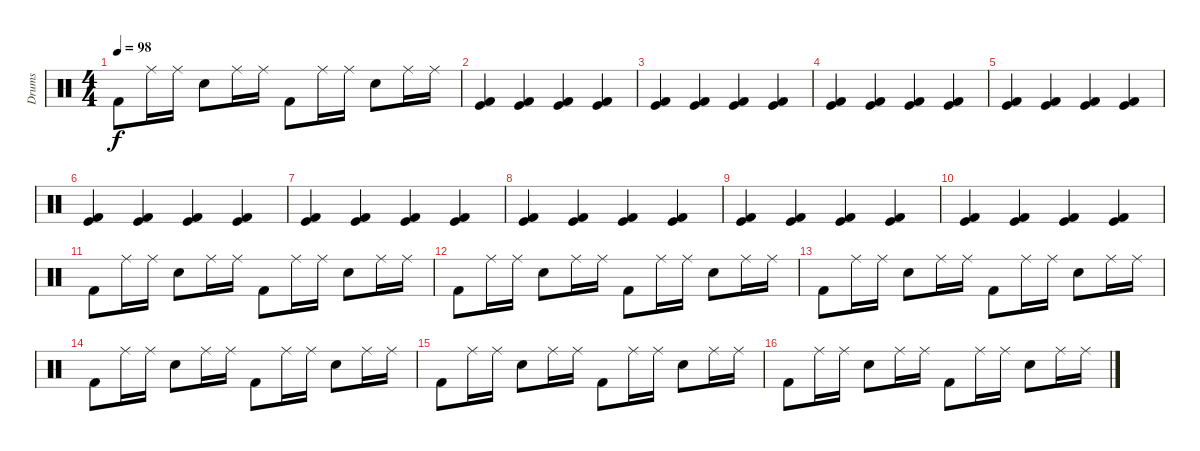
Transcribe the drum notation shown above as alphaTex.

\track ("Drums" "Drums") {instrument percussion}
\staff {score}
\articulation defaults
\ts (4 4)
\tempo 98
\clef neutral
\ks c "Kick (hit) 2".8{dy f} "Ride (middle)".16 "Ride (middle)".16 "Snare (hit) 2".8 "Ride (middle)".16 "Ride (middle)".16 "Kick (hit) 2".8 "Ride (middle)".16 "Ride (middle)".16 "Snare (hit) 2".8 "Ride (middle)".16 "Ride (middle)".16
|
("Kick (hit)" "Kick (hit) 2").4 ("Kick (hit)" "Kick (hit) 2").4 ("Kick (hit)" "Kick (hit) 2").4 ("Kick (hit)" "Kick (hit) 2").4 |
("Kick (hit)" "Kick (hit) 2").4 ("Kick (hit)" "Kick (hit) 2").4 ("Kick (hit)" "Kick (hit) 2").4 ("Kick (hit)" "Kick (hit) 2").4 |
("Kick (hit)" "Kick (hit) 2").4 ("Kick (hit)" "Kick (hit) 2").4 ("Kick (hit)" "Kick (hit) 2").4 ("Kick (hit)" "Kick (hit) 2").4 |
("Kick (hit)" "Kick (hit) 2").4 ("Kick (hit)" "Kick (hit) 2").4 ("Kick (hit)" "Kick (hit) 2").4 ("Kick (hit)" "Kick (hit) 2").4 |
("Kick (hit)" "Kick (hit) 2").4 ("Kick (hit)" "Kick (hit) 2").4 ("Kick (hit)" "Kick (hit) 2").4 ("Kick (hit)" "Kick (hit) 2").4 |
("Kick (hit)" "Kick (hit) 2").4 ("Kick (hit)" "Kick (hit) 2").4 ("Kick (hit)" "Kick (hit) 2").4 ("Kick (hit)" "Kick (hit) 2").4 |
("Kick (hit)" "Kick (hit) 2").4 ("Kick (hit)" "Kick (hit) 2").4 ("Kick (hit)" "Kick (hit) 2").4 ("Kick (hit)" "Kick (hit) 2").4 |
("Kick (hit)" "Kick (hit) 2").4 ("Kick (hit)" "Kick (hit) 2").4 ("Kick (hit)" "Kick (hit) 2").4 ("Kick (hit)" "Kick (hit) 2").4 |
("Kick (hit)" "Kick (hit) 2").4 ("Kick (hit)" "Kick (hit) 2").4 ("Kick (hit)" "Kick (hit) 2").4 ("Kick (hit)" "Kick (hit) 2").4 |
"Kick (hit) 2".8 "Ride (middle)".16 "Ride (middle)".16 "Snare (hit) 2".8 "Ride (middle)".16 "Ride (middle)".16 "Kick (hit) 2".8 "Ride (middle)".16 "Ride (middle)".16 "Snare (hit) 2".8 "Ride (middle)".16 "Ride (middle)".16 |
"Kick (hit) 2".8 "Ride (middle)".16 "Ride (middle)".16 "Snare (hit) 2".8 "Ride (middle)".16 "Ride (middle)".16 "Kick (hit) 2".8 "Ride (middle)".16 "Ride (middle)".16 "Snare (hit) 2".8 "Ride (middle)".16 "Ride (middle)".16 |
"Kick (hit) 2".8 "Ride (middle)".16 "Ride (middle)".16 "Snare (hit) 2".8 "Ride (middle)".16 "Ride (middle)".16 "Kick (hit) 2".8 "Ride (middle)".16 "Ride (middle)".16 "Snare (hit) 2".8 "Ride (middle)".16 "Ride (middle)".16 |
"Kick (hit) 2".8 "Ride (middle)".16 "Ride (middle)".16 "Snare (hit) 2".8 "Ride (middle)".16 "Ride (middle)".16 "Kick (hit) 2".8 "Ride (middle)".16 "Ride (middle)".16 "Snare (hit) 2".8 "Ride (middle)".16 "Ride (middle)".16 |
"Kick (hit) 2".8 "Ride (middle)".16 "Ride (middle)".16 "Snare (hit) 2".8 "Ride (middle)".16 "Ride (middle)".16 "Kick (hit) 2".8 "Ride (middle)".16 "Ride (middle)".16 "Snare (hit) 2".8 "Ride (middle)".16 "Ride (middle)".16 |
"Kick (hit) 2".8 "Ride (middle)".16 "Ride (middle)".16 "Snare (hit) 2".8 "Ride (middle)".16 "Ride (middle)".16 "Kick (hit) 2".8 "Ride (middle)".16 "Ride (middle)".16 "Snare (hit) 2".8 "Ride (middle)".16 "Ride (middle)".16
